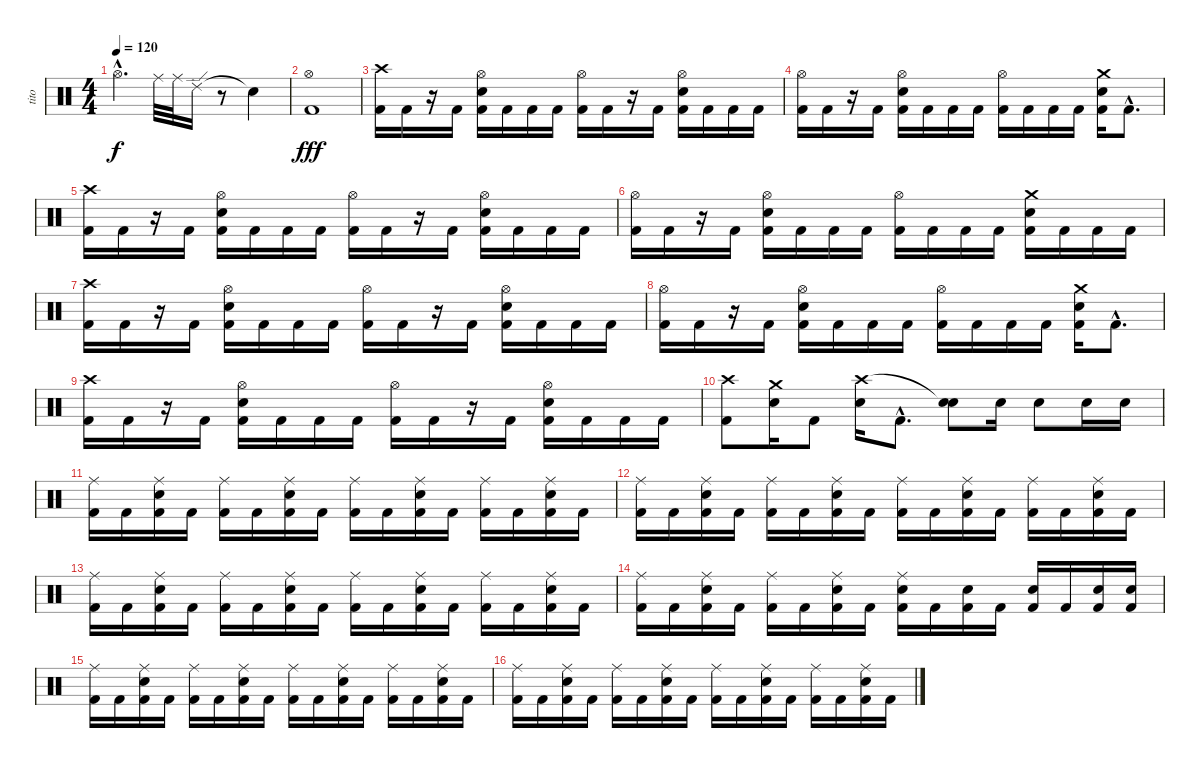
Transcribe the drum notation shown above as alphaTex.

\track ("tito" "tito") {instrument percussion}
\staff {score}
\articulation defaults
\ts (4 4)
\tempo 120
\clef neutral
\ks c "Hi-Hat (open)"{hac}.4{d dy f} "Ride (middle)".32 "Ride (middle)".32 "Ride (edge) 2".16
r.8 "Snare (hit)"{t}.4 |
("Kick (hit) 2" "Hi-Hat (open)").1{dy fff} |
("Kick (hit) 2" "Crash high (hit)").16 "Kick (hit) 2".16 r.16 "Kick (hit) 2".16 ("Kick (hit) 2" "Electric Snare (hit)" "Hi-Hat (open)").16 "Kick (hit) 2".16 "Kick (hit) 2".16 "Kick (hit) 2".16 ("Kick (hit) 2" "Hi-Hat (open)").16 "Kick (hit) 2".16 r.16 "Kick (hit) 2".16 ("Kick (hit) 2" "Electric Snare (hit)" "Hi-Hat (open)").16 "Kick (hit) 2".16 "Kick (hit) 2".16 "Kick (hit) 2".16 |
("Kick (hit) 2" "Hi-Hat (open)").16 "Kick (hit) 2".16 r.16 "Kick (hit) 2".16 ("Kick (hit) 2" "Electric Snare (hit)" "Hi-Hat (open)").16 "Kick (hit) 2".16 "Kick (hit) 2".16 "Kick (hit) 2".16 ("Kick (hit) 2" "Hi-Hat (open)").16 "Kick (hit) 2".16 "Kick (hit) 2".16 "Kick (hit) 2".16 ("Kick (hit) 2" "Electric Snare (hit)" "Crash medium (hit)").16 "Kick (hit) 2"{hac}.8{d} |
("Kick (hit) 2" "Crash high (hit)").16 "Kick (hit) 2".16 r.16 "Kick (hit) 2".16 ("Kick (hit) 2" "Electric Snare (hit)" "Hi-Hat (open)").16 "Kick (hit) 2".16 "Kick (hit) 2".16 "Kick (hit) 2".16 ("Kick (hit) 2" "Hi-Hat (open)").16 "Kick (hit) 2".16 r.16 "Kick (hit) 2".16 ("Kick (hit) 2" "Electric Snare (hit)" "Hi-Hat (open)").16 "Kick (hit) 2".16 "Kick (hit) 2".16 "Kick (hit) 2".16 |
("Kick (hit) 2" "Hi-Hat (open)").16 "Kick (hit) 2".16 r.16 "Kick (hit) 2".16 ("Kick (hit) 2" "Electric Snare (hit)" "Hi-Hat (open)").16 "Kick (hit) 2".16 "Kick (hit) 2".16 "Kick (hit) 2".16 ("Kick (hit) 2" "Hi-Hat (open)").16 "Kick (hit) 2".16 "Kick (hit) 2".16 "Kick (hit) 2".16 ("Kick (hit) 2" "Electric Snare (hit)" "Crash medium (hit)").16 "Kick (hit) 2".16 "Kick (hit) 2".16 "Kick (hit) 2".16 |
("Kick (hit) 2" "Crash high (hit)").16 "Kick (hit) 2".16 r.16 "Kick (hit) 2".16 ("Kick (hit) 2" "Electric Snare (hit)" "Hi-Hat (open)").16 "Kick (hit) 2".16 "Kick (hit) 2".16 "Kick (hit) 2".16 ("Kick (hit) 2" "Hi-Hat (open)").16 "Kick (hit) 2".16 r.16 "Kick (hit) 2".16 ("Kick (hit) 2" "Electric Snare (hit)" "Hi-Hat (open)").16 "Kick (hit) 2".16 "Kick (hit) 2".16 "Kick (hit) 2".16 |
("Kick (hit) 2" "Hi-Hat (open)").16 "Kick (hit) 2".16 r.16 "Kick (hit) 2".16 ("Kick (hit) 2" "Electric Snare (hit)" "Hi-Hat (open)").16 "Kick (hit) 2".16 "Kick (hit) 2".16 "Kick (hit) 2".16 ("Kick (hit) 2" "Hi-Hat (open)").16 "Kick (hit) 2".16 "Kick (hit) 2".16 "Kick (hit) 2".16 ("Kick (hit) 2" "Electric Snare (hit)" "Crash medium (hit)").16 "Kick (hit) 2"{hac}.8{d} |
("Kick (hit) 2" "Crash high (hit)").16 "Kick (hit) 2".16 r.16 "Kick (hit) 2".16 ("Kick (hit) 2" "Electric Snare (hit)" "Hi-Hat (open)").16 "Kick (hit) 2".16 "Kick (hit) 2".16 "Kick (hit) 2".16 ("Kick (hit) 2" "Hi-Hat (open)").16 "Kick (hit) 2".16 r.16 "Kick (hit) 2".16 ("Kick (hit) 2" "Electric Snare (hit)" "Hi-Hat (open)").16 "Kick (hit) 2".16 "Kick (hit) 2".16 "Kick (hit) 2".16 |
("Kick (hit) 2" "Crash high (hit)").8 ("Electric Snare (hit)" "Crash medium (hit)").16 "Kick (hit) 2".8 ("Electric Snare (hit)" "Crash high (hit)").16 "Kick (hit) 2"{hac}.8{d} ("Electric Snare (hit)" "Snare (hit)"{t}).8 "Electric Snare (hit)".16 "Electric Snare (hit)".8 "Electric Snare (hit)".16 "Electric Snare (hit)".16 |
("Kick (hit) 2" "Ride (middle)").16 "Kick (hit) 2".16 ("Kick (hit) 2" "Electric Snare (hit)" "Ride (middle)").16 "Kick (hit) 2".16 ("Kick (hit) 2" "Ride (middle)").16 "Kick (hit) 2".16 ("Kick (hit) 2" "Electric Snare (hit)" "Ride (middle)").16 "Kick (hit) 2".16 ("Kick (hit) 2" "Ride (middle)").16 "Kick (hit) 2".16 ("Kick (hit) 2" "Electric Snare (hit)" "Ride (middle)").16 "Kick (hit) 2".16 ("Kick (hit) 2" "Ride (middle)").16 "Kick (hit) 2".16 ("Kick (hit) 2" "Electric Snare (hit)" "Ride (middle)").16 "Kick (hit) 2".16 |
("Kick (hit) 2" "Ride (middle)").16 "Kick (hit) 2".16 ("Kick (hit) 2" "Electric Snare (hit)" "Ride (middle)").16 "Kick (hit) 2".16 ("Kick (hit) 2" "Ride (middle)").16 "Kick (hit) 2".16 ("Kick (hit) 2" "Electric Snare (hit)" "Ride (middle)").16 "Kick (hit) 2".16 ("Kick (hit) 2" "Ride (middle)").16 "Kick (hit) 2".16 ("Kick (hit) 2" "Electric Snare (hit)" "Ride (middle)").16 "Kick (hit) 2".16 ("Kick (hit) 2" "Ride (middle)").16 "Kick (hit) 2".16 ("Kick (hit) 2" "Electric Snare (hit)" "Ride (middle)").16 "Kick (hit) 2".16 |
("Kick (hit) 2" "Ride (middle)").16 "Kick (hit) 2".16 ("Kick (hit) 2" "Electric Snare (hit)" "Ride (middle)").16 "Kick (hit) 2".16 ("Kick (hit) 2" "Ride (middle)").16 "Kick (hit) 2".16 ("Kick (hit) 2" "Electric Snare (hit)" "Ride (middle)").16 "Kick (hit) 2".16 ("Kick (hit) 2" "Ride (middle)").16 "Kick (hit) 2".16 ("Kick (hit) 2" "Electric Snare (hit)" "Ride (middle)").16 "Kick (hit) 2".16 ("Kick (hit) 2" "Ride (middle)").16 "Kick (hit) 2".16 ("Kick (hit) 2" "Electric Snare (hit)" "Ride (middle)").16 "Kick (hit) 2".16 |
("Kick (hit) 2" "Ride (middle)").16 "Kick (hit) 2".16 ("Kick (hit) 2" "Electric Snare (hit)" "Ride (middle)").16 "Kick (hit) 2".16 ("Kick (hit) 2" "Ride (middle)").16 "Kick (hit) 2".16 ("Kick (hit) 2" "Electric Snare (hit)" "Ride (middle)").16 "Kick (hit) 2".16 ("Kick (hit) 2" "Electric Snare (hit)" "Ride (middle)").16 "Kick (hit) 2".16 ("Kick (hit) 2" "Electric Snare (hit)").16 "Kick (hit) 2".16 ("Kick (hit) 2" "Electric Snare (hit)").16 "Kick (hit) 2".16 ("Kick (hit) 2" "Electric Snare (hit)").16 ("Kick (hit) 2" "Electric Snare (hit)").16 |
("Kick (hit) 2" "Ride (middle)").16 "Kick (hit) 2".16 ("Kick (hit) 2" "Electric Snare (hit)" "Ride (middle)").16 "Kick (hit) 2".16 ("Kick (hit) 2" "Ride (middle)").16 "Kick (hit) 2".16 ("Kick (hit) 2" "Electric Snare (hit)" "Ride (middle)").16 "Kick (hit) 2".16 ("Kick (hit) 2" "Ride (middle)").16 "Kick (hit) 2".16 ("Kick (hit) 2" "Electric Snare (hit)" "Ride (middle)").16 "Kick (hit) 2".16 ("Kick (hit) 2" "Ride (middle)").16 "Kick (hit) 2".16 ("Kick (hit) 2" "Electric Snare (hit)" "Ride (middle)").16 "Kick (hit) 2".16 |
("Kick (hit) 2" "Ride (middle)").16 "Kick (hit) 2".16 ("Kick (hit) 2" "Electric Snare (hit)" "Ride (middle)").16 "Kick (hit) 2".16 ("Kick (hit) 2" "Ride (middle)").16 "Kick (hit) 2".16 ("Kick (hit) 2" "Electric Snare (hit)" "Ride (middle)").16 "Kick (hit) 2".16 ("Kick (hit) 2" "Ride (middle)").16 "Kick (hit) 2".16 ("Kick (hit) 2" "Electric Snare (hit)" "Ride (middle)").16 "Kick (hit) 2".16 ("Kick (hit) 2" "Ride (middle)").16 "Kick (hit) 2".16 ("Kick (hit) 2" "Electric Snare (hit)" "Ride (middle)").16 "Kick (hit) 2".16
